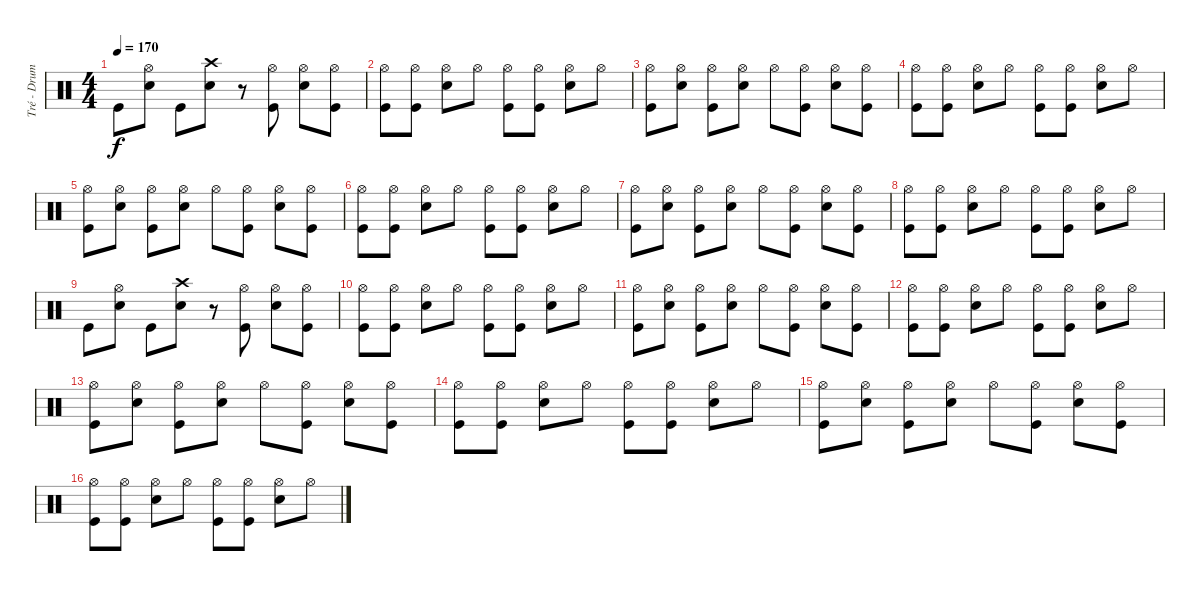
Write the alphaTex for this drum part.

\track ("Tré - Drums" "Tré - Drum") {instrument percussion}
\staff {score}
\articulation defaults
\ts (4 4)
\tempo 170
\clef neutral
\ks c "Kick (hit)".8{dy f}
("Hi-Hat (open)" "Electric Snare (hit)").8 "Kick (hit)".8 ("Crash high (hit)" "Electric Snare (hit)").8 r.8 ("Hi-Hat (open)" "Kick (hit)").8 ("Hi-Hat (open)" "Electric Snare (hit)").8 ("Hi-Hat (open)" "Kick (hit)").8 |
("Hi-Hat (open)" "Kick (hit)").8 ("Hi-Hat (open)" "Kick (hit)").8 ("Hi-Hat (open)" "Electric Snare (hit)").8 "Hi-Hat (open)".8 ("Hi-Hat (open)" "Kick (hit)").8 ("Hi-Hat (open)" "Kick (hit)").8 ("Hi-Hat (open)" "Electric Snare (hit)").8 "Hi-Hat (open)".8 |
("Hi-Hat (open)" "Kick (hit)").8 ("Hi-Hat (open)" "Electric Snare (hit)").8 ("Hi-Hat (open)" "Kick (hit)").8 ("Hi-Hat (open)" "Electric Snare (hit)").8 "Hi-Hat (open)".8 ("Hi-Hat (open)" "Kick (hit)").8 ("Hi-Hat (open)" "Electric Snare (hit)").8 ("Hi-Hat (open)" "Kick (hit)").8 |
("Hi-Hat (open)" "Kick (hit)").8 ("Hi-Hat (open)" "Kick (hit)").8 ("Hi-Hat (open)" "Electric Snare (hit)").8 "Hi-Hat (open)".8 ("Hi-Hat (open)" "Kick (hit)").8 ("Hi-Hat (open)" "Kick (hit)").8 ("Hi-Hat (open)" "Electric Snare (hit)").8 "Hi-Hat (open)".8 |
("Hi-Hat (open)" "Kick (hit)").8 ("Hi-Hat (open)" "Electric Snare (hit)").8 ("Hi-Hat (open)" "Kick (hit)").8 ("Hi-Hat (open)" "Electric Snare (hit)").8 "Hi-Hat (open)".8 ("Hi-Hat (open)" "Kick (hit)").8 ("Hi-Hat (open)" "Electric Snare (hit)").8 ("Hi-Hat (open)" "Kick (hit)").8 |
("Hi-Hat (open)" "Kick (hit)").8 ("Hi-Hat (open)" "Kick (hit)").8 ("Hi-Hat (open)" "Electric Snare (hit)").8 "Hi-Hat (open)".8 ("Hi-Hat (open)" "Kick (hit)").8 ("Hi-Hat (open)" "Kick (hit)").8 ("Hi-Hat (open)" "Electric Snare (hit)").8 "Hi-Hat (open)".8 |
("Hi-Hat (open)" "Kick (hit)").8 ("Hi-Hat (open)" "Electric Snare (hit)").8 ("Hi-Hat (open)" "Kick (hit)").8 ("Hi-Hat (open)" "Electric Snare (hit)").8 "Hi-Hat (open)".8 ("Hi-Hat (open)" "Kick (hit)").8 ("Hi-Hat (open)" "Electric Snare (hit)").8 ("Hi-Hat (open)" "Kick (hit)").8 |
("Hi-Hat (open)" "Kick (hit)").8 ("Hi-Hat (open)" "Kick (hit)").8 ("Hi-Hat (open)" "Electric Snare (hit)").8 "Hi-Hat (open)".8 ("Hi-Hat (open)" "Kick (hit)").8 ("Hi-Hat (open)" "Kick (hit)").8 ("Hi-Hat (open)" "Electric Snare (hit)").8 "Hi-Hat (open)".8 |
"Kick (hit)".8 ("Hi-Hat (open)" "Electric Snare (hit)").8 "Kick (hit)".8 ("Crash high (hit)" "Electric Snare (hit)").8 r.8 ("Hi-Hat (open)" "Kick (hit)").8 ("Hi-Hat (open)" "Electric Snare (hit)").8 ("Hi-Hat (open)" "Kick (hit)").8 |
("Hi-Hat (open)" "Kick (hit)").8 ("Hi-Hat (open)" "Kick (hit)").8 ("Hi-Hat (open)" "Electric Snare (hit)").8 "Hi-Hat (open)".8 ("Hi-Hat (open)" "Kick (hit)").8 ("Hi-Hat (open)" "Kick (hit)").8 ("Hi-Hat (open)" "Electric Snare (hit)").8 "Hi-Hat (open)".8 |
("Hi-Hat (open)" "Kick (hit)").8 ("Hi-Hat (open)" "Electric Snare (hit)").8 ("Hi-Hat (open)" "Kick (hit)").8 ("Hi-Hat (open)" "Electric Snare (hit)").8 "Hi-Hat (open)".8 ("Hi-Hat (open)" "Kick (hit)").8 ("Hi-Hat (open)" "Electric Snare (hit)").8 ("Hi-Hat (open)" "Kick (hit)").8 |
("Hi-Hat (open)" "Kick (hit)").8 ("Hi-Hat (open)" "Kick (hit)").8 ("Hi-Hat (open)" "Electric Snare (hit)").8 "Hi-Hat (open)".8 ("Hi-Hat (open)" "Kick (hit)").8 ("Hi-Hat (open)" "Kick (hit)").8 ("Hi-Hat (open)" "Electric Snare (hit)").8 "Hi-Hat (open)".8 |
("Hi-Hat (open)" "Kick (hit)").8 ("Hi-Hat (open)" "Electric Snare (hit)").8 ("Hi-Hat (open)" "Kick (hit)").8 ("Hi-Hat (open)" "Electric Snare (hit)").8 "Hi-Hat (open)".8 ("Hi-Hat (open)" "Kick (hit)").8 ("Hi-Hat (open)" "Electric Snare (hit)").8 ("Hi-Hat (open)" "Kick (hit)").8 |
("Hi-Hat (open)" "Kick (hit)").8 ("Hi-Hat (open)" "Kick (hit)").8 ("Hi-Hat (open)" "Electric Snare (hit)").8 "Hi-Hat (open)".8 ("Hi-Hat (open)" "Kick (hit)").8 ("Hi-Hat (open)" "Kick (hit)").8 ("Hi-Hat (open)" "Electric Snare (hit)").8 "Hi-Hat (open)".8 |
("Hi-Hat (open)" "Kick (hit)").8 ("Hi-Hat (open)" "Electric Snare (hit)").8 ("Hi-Hat (open)" "Kick (hit)").8 ("Hi-Hat (open)" "Electric Snare (hit)").8 "Hi-Hat (open)".8 ("Hi-Hat (open)" "Kick (hit)").8 ("Hi-Hat (open)" "Electric Snare (hit)").8 ("Hi-Hat (open)" "Kick (hit)").8 |
("Hi-Hat (open)" "Kick (hit)").8 ("Hi-Hat (open)" "Kick (hit)").8 ("Hi-Hat (open)" "Electric Snare (hit)").8 "Hi-Hat (open)".8 ("Hi-Hat (open)" "Kick (hit)").8 ("Hi-Hat (open)" "Kick (hit)").8 ("Hi-Hat (open)" "Electric Snare (hit)").8 "Hi-Hat (open)".8
